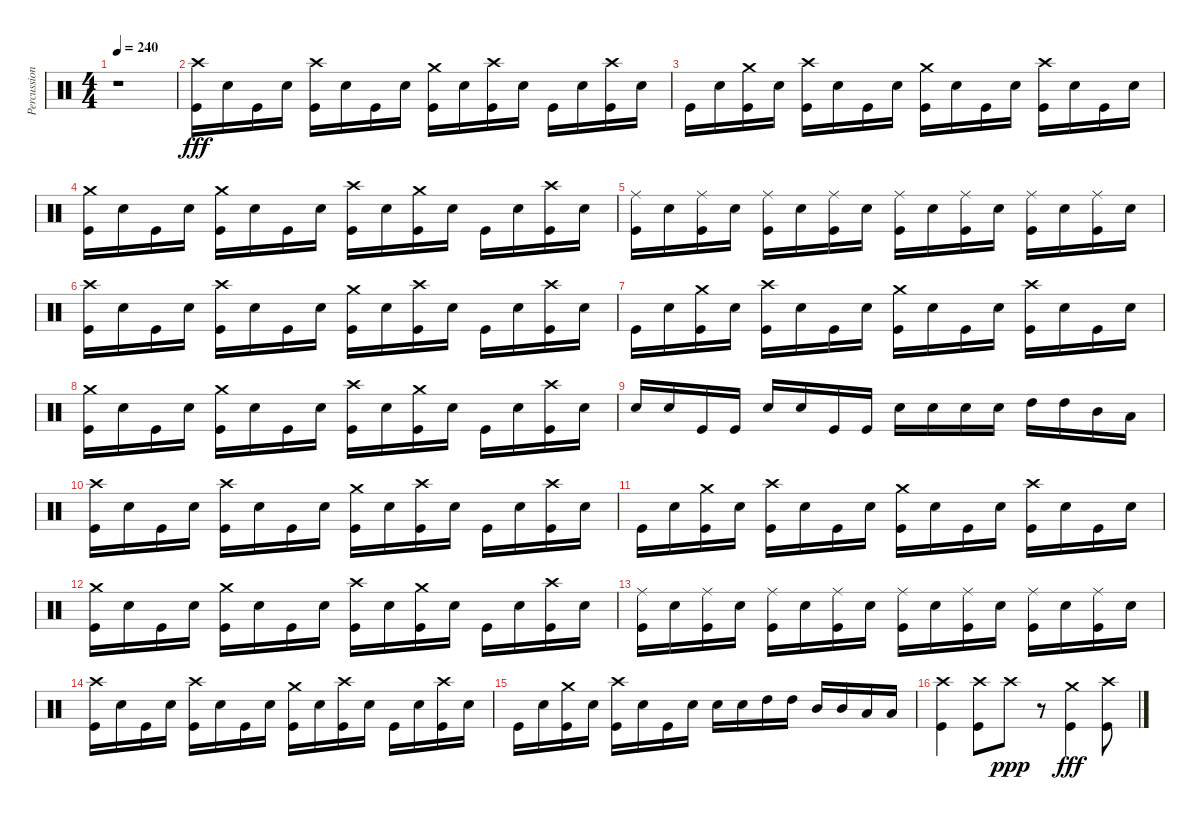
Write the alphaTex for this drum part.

\track ("Percussion" "Percussion") {instrument percussion}
\staff {score}
\articulation defaults
\ts (4 4)
\tempo 240
\clef neutral
\ks c
r.1{dy fff} |
("Kick (hit)" "Crash high (hit)").16 "Snare (hit) 2".16 "Kick (hit)".16 "Snare (hit) 2".16 ("Kick (hit)" "Crash high (hit)").16 "Snare (hit) 2".16 "Kick (hit)".16 "Snare (hit) 2".16 ("Kick (hit)" "Crash medium (hit)").16 "Snare (hit) 2".16 ("Kick (hit)" "Crash high (hit)").16 "Snare (hit) 2".16 "Kick (hit)".16 "Snare (hit) 2".16 ("Kick (hit)" "Crash high (hit)").16 "Snare (hit) 2".16 |
"Kick (hit)".16 "Snare (hit) 2".16 ("Kick (hit)" "Crash medium (hit)").16 "Snare (hit) 2".16 ("Kick (hit)" "Crash high (hit)").16 "Snare (hit) 2".16 "Kick (hit)".16 "Snare (hit) 2".16 ("Kick (hit)" "Crash medium (hit)").16 "Snare (hit) 2".16 "Kick (hit)".16 "Snare (hit) 2".16 ("Crash high (hit)" "Kick (hit)").16 "Snare (hit) 2".16 "Kick (hit)".16 "Snare (hit) 2".16 |
("Kick (hit)" "Crash medium (hit)").16 "Snare (hit) 2".16 "Kick (hit)".16 "Snare (hit) 2".16 ("Kick (hit)" "Crash medium (hit)").16 "Snare (hit) 2".16 "Kick (hit)".16 "Snare (hit) 2".16 ("Kick (hit)" "Crash high (hit)").16 "Snare (hit) 2".16 ("Kick (hit)" "Crash medium (hit)").16 "Snare (hit) 2".16 "Kick (hit)".16 "Snare (hit) 2".16 ("Kick (hit)" "Crash high (hit)").16 "Snare (hit) 2".16 |
("Kick (hit)" "Ride (middle)").16 "Snare (hit) 2".16 ("Kick (hit)" "Ride (middle)").16 "Snare (hit) 2".16 ("Kick (hit)" "Ride (middle)").16 "Snare (hit) 2".16 ("Kick (hit)" "Ride (middle)").16 "Snare (hit) 2".16 ("Kick (hit)" "Ride (middle)").16 "Snare (hit) 2".16 ("Kick (hit)" "Ride (middle)").16 "Snare (hit) 2".16 ("Kick (hit)" "Ride (middle)").16 "Snare (hit) 2".16 ("Kick (hit)" "Ride (middle)").16 "Snare (hit) 2".16 |
("Kick (hit)" "Crash high (hit)").16 "Snare (hit) 2".16 "Kick (hit)".16 "Snare (hit) 2".16 ("Kick (hit)" "Crash high (hit)").16 "Snare (hit) 2".16 "Kick (hit)".16 "Snare (hit) 2".16 ("Kick (hit)" "Crash medium (hit)").16 "Snare (hit) 2".16 ("Kick (hit)" "Crash high (hit)").16 "Snare (hit) 2".16 "Kick (hit)".16 "Snare (hit) 2".16 ("Kick (hit)" "Crash high (hit)").16 "Snare (hit) 2".16 |
"Kick (hit)".16 "Snare (hit) 2".16 ("Kick (hit)" "Crash medium (hit)").16 "Snare (hit) 2".16 ("Kick (hit)" "Crash high (hit)").16 "Snare (hit) 2".16 "Kick (hit)".16 "Snare (hit) 2".16 ("Kick (hit)" "Crash medium (hit)").16 "Snare (hit) 2".16 "Kick (hit)".16 "Snare (hit) 2".16 ("Crash high (hit)" "Kick (hit)").16 "Snare (hit) 2".16 "Kick (hit)".16 "Snare (hit) 2".16 |
("Kick (hit)" "Crash medium (hit)").16 "Snare (hit) 2".16 "Kick (hit)".16 "Snare (hit) 2".16 ("Kick (hit)" "Crash medium (hit)").16 "Snare (hit) 2".16 "Kick (hit)".16 "Snare (hit) 2".16 ("Kick (hit)" "Crash high (hit)").16 "Snare (hit) 2".16 ("Kick (hit)" "Crash medium (hit)").16 "Snare (hit) 2".16 "Kick (hit)".16 "Snare (hit) 2".16 ("Kick (hit)" "Crash high (hit)").16 "Snare (hit) 2".16 |
"Snare (hit) 2".16 "Snare (hit) 2".16 "Kick (hit)".16 "Kick (hit)".16 "Snare (hit) 2".16 "Snare (hit) 2".16 "Kick (hit)".16 "Kick (hit)".16 "Snare (hit) 2".16 "Snare (hit) 2".16 "Snare (hit) 2".16 "Snare (hit) 2".16 "High Tom (hit)".16 "High Tom (hit)".16 "Mid Tom (hit)".16 "Low Tom (hit)".16 |
("Kick (hit)" "Crash high (hit)").16 "Snare (hit) 2".16 "Kick (hit)".16 "Snare (hit) 2".16 ("Kick (hit)" "Crash high (hit)").16 "Snare (hit) 2".16 "Kick (hit)".16 "Snare (hit) 2".16 ("Kick (hit)" "Crash medium (hit)").16 "Snare (hit) 2".16 ("Kick (hit)" "Crash high (hit)").16 "Snare (hit) 2".16 "Kick (hit)".16 "Snare (hit) 2".16 ("Kick (hit)" "Crash high (hit)").16 "Snare (hit) 2".16 |
"Kick (hit)".16 "Snare (hit) 2".16 ("Kick (hit)" "Crash medium (hit)").16 "Snare (hit) 2".16 ("Kick (hit)" "Crash high (hit)").16 "Snare (hit) 2".16 "Kick (hit)".16 "Snare (hit) 2".16 ("Kick (hit)" "Crash medium (hit)").16 "Snare (hit) 2".16 "Kick (hit)".16 "Snare (hit) 2".16 ("Crash high (hit)" "Kick (hit)").16 "Snare (hit) 2".16 "Kick (hit)".16 "Snare (hit) 2".16 |
("Kick (hit)" "Crash medium (hit)").16 "Snare (hit) 2".16 "Kick (hit)".16 "Snare (hit) 2".16 ("Kick (hit)" "Crash medium (hit)").16 "Snare (hit) 2".16 "Kick (hit)".16 "Snare (hit) 2".16 ("Kick (hit)" "Crash high (hit)").16 "Snare (hit) 2".16 ("Kick (hit)" "Crash medium (hit)").16 "Snare (hit) 2".16 "Kick (hit)".16 "Snare (hit) 2".16 ("Kick (hit)" "Crash high (hit)").16 "Snare (hit) 2".16 |
("Kick (hit)" "Ride (middle)").16 "Snare (hit) 2".16 ("Kick (hit)" "Ride (middle)").16 "Snare (hit) 2".16 ("Kick (hit)" "Ride (middle)").16 "Snare (hit) 2".16 ("Kick (hit)" "Ride (middle)").16 "Snare (hit) 2".16 ("Kick (hit)" "Ride (middle)").16 "Snare (hit) 2".16 ("Kick (hit)" "Ride (middle)").16 "Snare (hit) 2".16 ("Kick (hit)" "Ride (middle)").16 "Snare (hit) 2".16 ("Kick (hit)" "Ride (middle)").16 "Snare (hit) 2".16 |
("Kick (hit)" "Crash high (hit)").16 "Snare (hit) 2".16 "Kick (hit)".16 "Snare (hit) 2".16 ("Kick (hit)" "Crash high (hit)").16 "Snare (hit) 2".16 "Kick (hit)".16 "Snare (hit) 2".16 ("Kick (hit)" "Crash medium (hit)").16 "Snare (hit) 2".16 ("Kick (hit)" "Crash high (hit)").16 "Snare (hit) 2".16 "Kick (hit)".16 "Snare (hit) 2".16 ("Kick (hit)" "Crash high (hit)").16 "Snare (hit) 2".16 |
"Kick (hit)".16 "Snare (hit) 2".16 ("Kick (hit)" "Crash medium (hit)").16 "Snare (hit) 2".16 ("Kick (hit)" "Crash high (hit)").16 "Snare (hit) 2".16 "Kick (hit)".16 "Snare (hit) 2".16 "Snare (hit) 2".16 "Snare (hit) 2".16 "High Tom (hit)".16 "High Tom (hit)".16 "Mid Tom (hit)".16 "Mid Tom (hit)".16 "Low Tom (hit)".16 "Low Tom (hit)".16 |
("Kick (hit)" "Crash high (hit)").4 ("Kick (hit)" "Crash high (hit)").8 "Crash high (hit)".8{dy ppp} r.8 ("Crash medium (hit)" "Kick (hit)").4{dy fff} ("Crash high (hit)" "Kick (hit)").8
